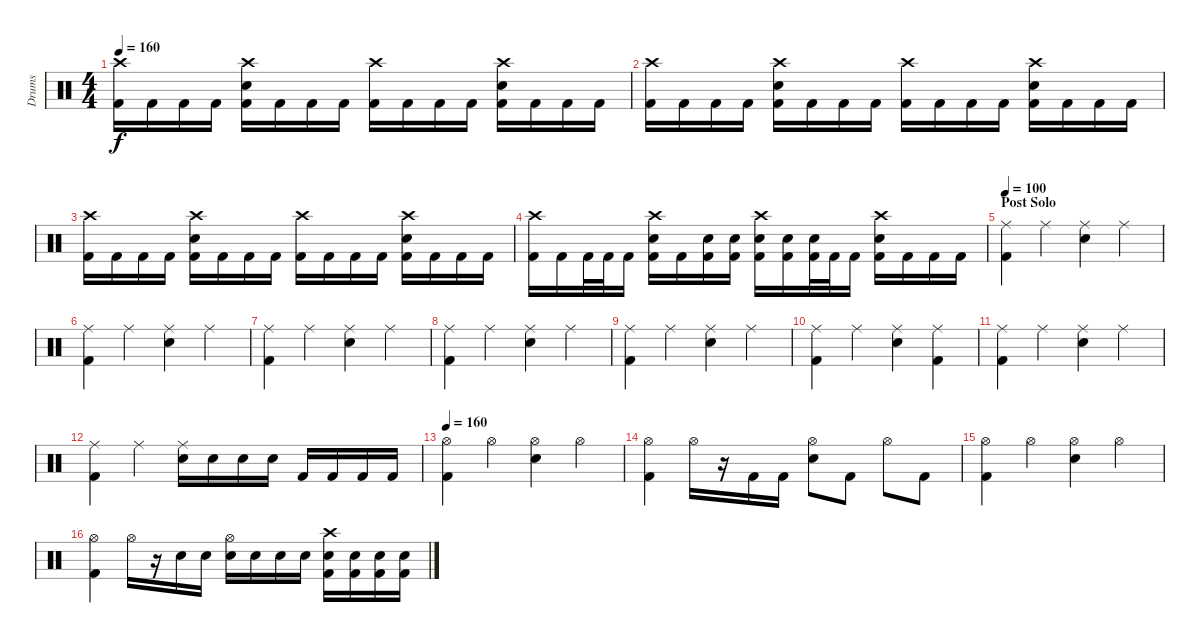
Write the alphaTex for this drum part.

\track ("Drums" "Drums") {instrument percussion}
\staff {score}
\articulation defaults
\ts (4 4)
\tempo 160
\clef neutral
\ks c
("Crash high (hit)" "Kick (hit) 2").16{dy f} "Kick (hit) 2".16 "Kick (hit) 2".16 "Kick (hit) 2".16 ("Crash high (hit)" "Electric Snare (hit)" "Kick (hit) 2").16 "Kick (hit) 2".16 "Kick (hit) 2".16 "Kick (hit) 2".16 ("Crash high (hit)" "Kick (hit) 2").16 "Kick (hit) 2".16 "Kick (hit) 2".16 "Kick (hit) 2".16 ("Crash high (hit)" "Electric Snare (hit)" "Kick (hit) 2").16 "Kick (hit) 2".16 "Kick (hit) 2".16 "Kick (hit) 2".16 |
("Crash high (hit)" "Kick (hit) 2").16 "Kick (hit) 2".16 "Kick (hit) 2".16 "Kick (hit) 2".16 ("Crash high (hit)" "Electric Snare (hit)" "Kick (hit) 2").16 "Kick (hit) 2".16 "Kick (hit) 2".16 "Kick (hit) 2".16 ("Crash high (hit)" "Kick (hit) 2").16 "Kick (hit) 2".16 "Kick (hit) 2".16 "Kick (hit) 2".16 ("Crash high (hit)" "Electric Snare (hit)" "Kick (hit) 2").16 "Kick (hit) 2".16 "Kick (hit) 2".16 "Kick (hit) 2".16 |
("Crash high (hit)" "Kick (hit) 2").16 "Kick (hit) 2".16 "Kick (hit) 2".16 "Kick (hit) 2".16 ("Crash high (hit)" "Electric Snare (hit)" "Kick (hit) 2").16 "Kick (hit) 2".16 "Kick (hit) 2".16 "Kick (hit) 2".16 ("Crash high (hit)" "Kick (hit) 2").16 "Kick (hit) 2".16 "Kick (hit) 2".16 "Kick (hit) 2".16 ("Crash high (hit)" "Electric Snare (hit)" "Kick (hit) 2").16 "Kick (hit) 2".16 "Kick (hit) 2".16 "Kick (hit) 2".16 |
("Crash high (hit)" "Kick (hit) 2").16 "Kick (hit) 2".16 "Kick (hit) 2".32 "Kick (hit) 2".32 "Kick (hit) 2".16 ("Crash high (hit)" "Electric Snare (hit)" "Kick (hit) 2").16 "Kick (hit) 2".16 ("Electric Snare (hit)" "Kick (hit) 2").16 ("Electric Snare (hit)" "Kick (hit) 2").16 ("Crash high (hit)" "Electric Snare (hit)" "Kick (hit) 2").16 ("Electric Snare (hit)" "Kick (hit) 2").16 ("Electric Snare (hit)" "Kick (hit) 2").32 "Kick (hit) 2".32 "Kick (hit) 2".16 ("Crash high (hit)" "Electric Snare (hit)" "Kick (hit) 2").16 "Kick (hit) 2".16 "Kick (hit) 2".16 "Kick (hit) 2".16 |
\section ("" "Post Solo")
\tempo 100
("Ride (middle)" "Kick (hit) 2").4 "Ride (middle)".4 ("Ride (middle)" "Electric Snare (hit)").4 "Ride (middle)".4 |
("Ride (middle)" "Kick (hit) 2").4 "Ride (middle)".4 ("Ride (middle)" "Electric Snare (hit)").4 "Ride (middle)".4 |
("Ride (middle)" "Kick (hit) 2").4 "Ride (middle)".4 ("Ride (middle)" "Electric Snare (hit)").4 "Ride (middle)".4 |
("Ride (middle)" "Kick (hit) 2").4 "Ride (middle)".4 ("Ride (middle)" "Electric Snare (hit)").4 "Ride (middle)".4 |
("Ride (middle)" "Kick (hit) 2").4 "Ride (middle)".4 ("Ride (middle)" "Electric Snare (hit)").4 "Ride (middle)".4 |
("Ride (middle)" "Kick (hit) 2").4 "Ride (middle)".4 ("Ride (middle)" "Electric Snare (hit)").4 ("Ride (middle)" "Kick (hit) 2").4 |
("Ride (middle)" "Kick (hit) 2").4 "Ride (middle)".4 ("Ride (middle)" "Electric Snare (hit)").4 "Ride (middle)".4 |
("Ride (middle)" "Kick (hit) 2").4 "Ride (middle)".4 ("Ride (middle)" "Electric Snare (hit)").16 "Electric Snare (hit)".16 "Electric Snare (hit)".16 "Electric Snare (hit)".16 "Kick (hit) 2".16 "Kick (hit) 2".16 "Kick (hit) 2".16 "Kick (hit) 2".16 |
\tempo 160
("Hi-Hat (open)" "Kick (hit) 2").4 "Hi-Hat (open)".4 ("Hi-Hat (open)" "Electric Snare (hit)").4 "Hi-Hat (open)".4 |
("Hi-Hat (open)" "Kick (hit) 2").4 "Hi-Hat (open)".16 r.16 "Kick (hit) 2".16 "Kick (hit) 2".16 ("Hi-Hat (open)" "Electric Snare (hit)").8 "Kick (hit) 2".8 "Hi-Hat (open)".8 "Kick (hit) 2".8 |
("Hi-Hat (open)" "Kick (hit) 2").4 "Hi-Hat (open)".4 ("Hi-Hat (open)" "Electric Snare (hit)").4 "Hi-Hat (open)".4 |
("Hi-Hat (open)" "Kick (hit) 2").4 "Hi-Hat (open)".16 r.16 "Electric Snare (hit)".16 "Electric Snare (hit)".16 ("Hi-Hat (open)" "Electric Snare (hit)").16 "Electric Snare (hit)".16 "Electric Snare (hit)".16 "Electric Snare (hit)".16 ("Crash high (hit)" "Electric Snare (hit)" "Kick (hit) 2").16 ("Electric Snare (hit)" "Kick (hit) 2").16 ("Electric Snare (hit)" "Kick (hit) 2").16 ("Electric Snare (hit)" "Kick (hit) 2").16
